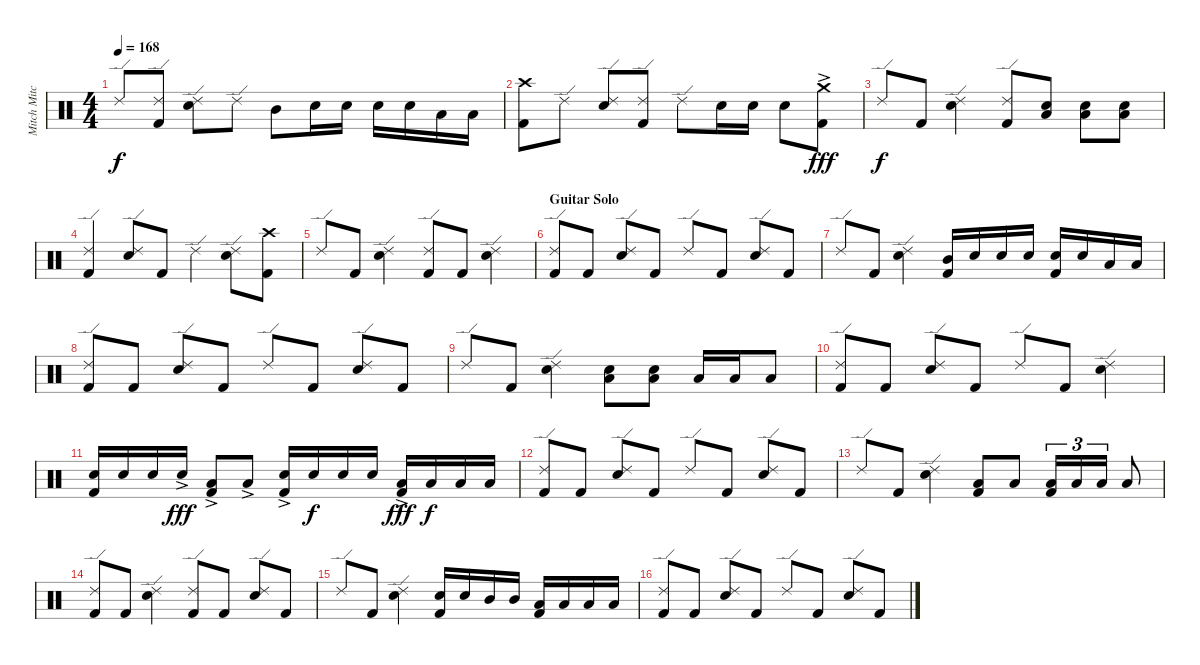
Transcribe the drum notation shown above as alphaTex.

\track ("Mitch Mitchell" "Mitch Mitc") {instrument percussion}
\staff {score}
\articulation defaults
\ts (4 4)
\tempo 168
\clef neutral
\ks c "Ride (edge) 2".8{dy f}
("Ride (edge) 2" "Kick (hit) 2").8 ("Ride (edge) 2" "Snare (hit) 2").8 "Ride (edge) 2".8 "Mid Tom (hit)".8 "Snare (hit) 2".16 "Snare (hit) 2".16 "Snare (hit) 2".16 "Snare (hit) 2".16 "Low Tom (hit)".16 "Low Tom (hit)".16 |
("Crash high (hit)" "Kick (hit) 2").8 "Ride (edge) 2".8 ("Ride (edge) 2" "Snare (hit) 2").8 ("Ride (edge) 2" "Kick (hit) 2").8 "Ride (edge) 2".8 "Snare (hit) 2".16 "Snare (hit) 2".16 "Snare (hit) 2".8 ("Crash medium (hit)"{ac} "Kick (hit) 2"{ac}).8{dy fff} |
"Ride (edge) 2".8{dy f} "Kick (hit) 2".8 ("Ride (edge) 2" "Snare (hit) 2").4 ("Ride (edge) 2" "Kick (hit) 2").8 ("Snare (hit) 2" "Low Tom (hit)").8 ("Snare (hit) 2" "Low Tom (hit)").8 ("Snare (hit) 2" "Low Tom (hit)").8 |
("Ride (edge) 2" "Kick (hit) 2").4 ("Ride (edge) 2" "Snare (hit) 2").8 "Kick (hit) 2".8 "Ride (edge) 2".4 ("Ride (edge) 2" "Snare (hit) 2").8 ("Crash high (hit)" "Kick (hit) 2").8 |
"Ride (edge) 2".8 "Kick (hit) 2".8 ("Ride (edge) 2" "Snare (hit) 2").4 ("Ride (edge) 2" "Kick (hit) 2").8 "Kick (hit) 2".8 ("Ride (edge) 2" "Snare (hit) 2").4 |
\section ("" "Guitar Solo")
("Ride (edge) 2" "Kick (hit) 2").8 "Kick (hit) 2".8 ("Ride (edge) 2" "Snare (hit) 2").8 "Kick (hit) 2".8 "Ride (edge) 2".8 "Kick (hit) 2".8 ("Ride (edge) 2" "Snare (hit) 2").8 "Kick (hit) 2".8 |
"Ride (edge) 2".8 "Kick (hit) 2".8 ("Ride (edge) 2" "Snare (hit) 2").4 ("Mid Tom (hit)" "Kick (hit) 2").16 "Snare (hit) 2".16 "Snare (hit) 2".16 "Snare (hit) 2".16 ("Snare (hit) 2" "Kick (hit) 2").16 "Snare (hit) 2".16 "Low Tom (hit)".16 "Low Tom (hit)".16 |
("Ride (edge) 2" "Kick (hit) 2").8 "Kick (hit) 2".8 ("Ride (edge) 2" "Snare (hit) 2").8 "Kick (hit) 2".8 "Ride (edge) 2".8 "Kick (hit) 2".8 ("Ride (edge) 2" "Snare (hit) 2").8 "Kick (hit) 2".8 |
"Ride (edge) 2".8 "Kick (hit) 2".8 ("Ride (edge) 2" "Snare (hit) 2").4 ("Snare (hit) 2" "Low Tom (hit)").8 ("Snare (hit) 2" "Low Tom (hit)").8 "Low Tom (hit)".16 "Low Tom (hit)".16 "Low Tom (hit)".8 |
("Ride (edge) 2" "Kick (hit) 2").8 "Kick (hit) 2".8 ("Ride (edge) 2" "Snare (hit) 2").8 "Kick (hit) 2".8 "Ride (edge) 2".8 "Kick (hit) 2".8 ("Ride (edge) 2" "Snare (hit) 2").4 |
("Snare (hit) 2" "Kick (hit) 2").16 "Snare (hit) 2".16 "Snare (hit) 2".16 "Snare (hit) 2"{ac}.16{dy fff} ("Low Tom (hit)"{ac} "Kick (hit) 2").8 "Low Tom (hit)"{ac}.8 ("Snare (hit) 2"{ac} "Kick (hit) 2").16 "Snare (hit) 2".16{dy f} "Snare (hit) 2".16 "Snare (hit) 2".16 ("Low Tom (hit)"{ac} "Kick (hit) 2").16{dy fff} "Low Tom (hit)".16{dy f} "Low Tom (hit)".16 "Low Tom (hit)".16 |
("Ride (edge) 2" "Kick (hit) 2").8 "Kick (hit) 2".8 ("Ride (edge) 2" "Snare (hit) 2").8 "Kick (hit) 2".8 "Ride (edge) 2".8 "Kick (hit) 2".8 ("Ride (edge) 2" "Snare (hit) 2").8 "Kick (hit) 2".8 |
"Ride (edge) 2".8 "Kick (hit) 2".8 ("Ride (edge) 2" "Snare (hit) 2").4 ("Low Tom (hit)" "Kick (hit) 2").8 "Low Tom (hit)".8 ("Low Tom (hit)" "Kick (hit) 2").16{tu (3 2)} "Low Tom (hit)".16{tu (3 2)} "Low Tom (hit)".16{tu (3 2)} "Low Tom (hit)".8 |
("Ride (edge) 2" "Kick (hit) 2").8 "Kick (hit) 2".8 ("Ride (edge) 2" "Snare (hit) 2").4 ("Ride (edge) 2" "Kick (hit) 2").8 "Kick (hit) 2".8 ("Ride (edge) 2" "Snare (hit) 2").8 "Kick (hit) 2".8 |
"Ride (edge) 2".8 "Kick (hit) 2".8 ("Ride (edge) 2" "Snare (hit) 2").4 ("Snare (hit) 2" "Kick (hit) 2").16 "Snare (hit) 2".16 "Mid Tom (hit)".16 "Mid Tom (hit)".16 ("Low Tom (hit)" "Kick (hit) 2").16 "Low Tom (hit)".16 "Low Tom (hit)".16 "Low Tom (hit)".16 |
("Ride (edge) 2" "Kick (hit) 2").8 "Kick (hit) 2".8 ("Ride (edge) 2" "Snare (hit) 2").8 "Kick (hit) 2".8 "Ride (edge) 2".8 "Kick (hit) 2".8 ("Ride (edge) 2" "Snare (hit) 2").8 "Kick (hit) 2".8
